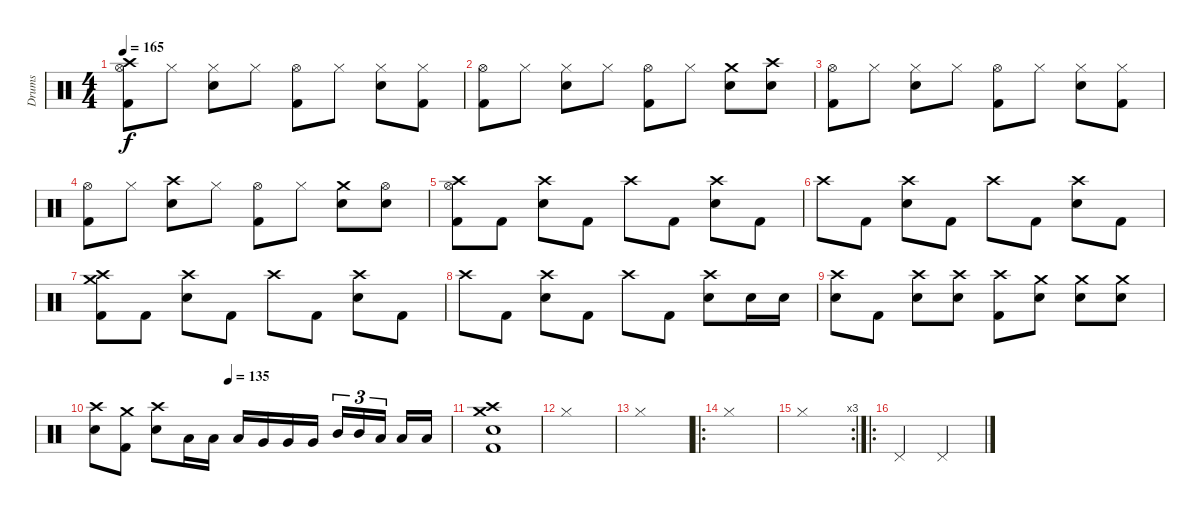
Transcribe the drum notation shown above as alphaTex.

\track ("Drums" "Drums") {instrument percussion}
\staff {score}
\articulation defaults
\ts (4 4)
\tempo 165
\clef neutral
\ks c
("Crash high (hit)" "Hi-Hat (open)" "Kick (hit) 2").8{dy f} "Hi-Hat (closed)".8 ("Hi-Hat (closed)" "Snare (hit) 2").8 "Hi-Hat (closed)".8 ("Hi-Hat (open)" "Kick (hit) 2").8 "Hi-Hat (closed)".8 ("Hi-Hat (closed)" "Snare (hit) 2").8 ("Hi-Hat (closed)" "Kick (hit) 2").8 |
("Hi-Hat (open)" "Kick (hit) 2").8 "Hi-Hat (closed)".8 ("Hi-Hat (closed)" "Snare (hit) 2").8 "Hi-Hat (closed)".8 ("Hi-Hat (open)" "Kick (hit) 2").8 "Hi-Hat (closed)".8 ("Crash medium (hit)" "Snare (hit) 2").8 ("Crash high (hit)" "Snare (hit) 2").8 |
("Hi-Hat (open)" "Kick (hit) 2").8 "Hi-Hat (closed)".8 ("Hi-Hat (closed)" "Snare (hit) 2").8 "Hi-Hat (closed)".8 ("Hi-Hat (open)" "Kick (hit) 2").8 "Hi-Hat (closed)".8 ("Hi-Hat (closed)" "Snare (hit) 2").8 ("Hi-Hat (closed)" "Kick (hit) 2").8 |
("Hi-Hat (open)" "Kick (hit) 2").8 "Hi-Hat (closed)".8 ("Crash high (hit)" "Snare (hit) 2").8 "Hi-Hat (closed)".8 ("Hi-Hat (open)" "Kick (hit) 2").8 "Hi-Hat (closed)".8 ("Crash medium (hit)" "Snare (hit) 2").8 ("Hi-Hat (open)" "Snare (hit) 2").8 |
("Crash high (hit)" "Hi-Hat (open)" "Kick (hit) 2").8 "Kick (hit) 2".8 ("Crash high (hit)" "Snare (hit) 2").8 "Kick (hit) 2".8 "Crash high (hit)".8 "Kick (hit) 2".8 ("Crash high (hit)" "Snare (hit) 2").8 "Kick (hit) 2".8 |
"Crash high (hit)".8 "Kick (hit) 2".8 ("Crash high (hit)" "Snare (hit) 2").8 "Kick (hit) 2".8 "Crash high (hit)".8 "Kick (hit) 2".8 ("Crash high (hit)" "Snare (hit) 2").8 "Kick (hit) 2".8 |
("Crash medium (hit)" "Crash high (hit)" "Kick (hit) 2").8 "Kick (hit) 2".8 ("Crash high (hit)" "Snare (hit) 2").8 "Kick (hit) 2".8 "Crash high (hit)".8 "Kick (hit) 2".8 ("Crash high (hit)" "Snare (hit) 2").8 "Kick (hit) 2".8 |
"Crash high (hit)".8 "Kick (hit) 2".8 ("Crash high (hit)" "Snare (hit) 2").8 "Kick (hit) 2".8 "Crash high (hit)".8 "Kick (hit) 2".8 ("Crash high (hit)" "Snare (hit) 2").8 "Snare (hit) 2".16 "Snare (hit) 2".16 |
("Crash high (hit)" "Snare (hit) 2").8 "Kick (hit) 2".8 ("Crash high (hit)" "Snare (hit) 2").8 ("Crash high (hit)" "Snare (hit) 2").8 ("Crash high (hit)" "Kick (hit) 2").8 ("Crash medium (hit)" "Snare (hit) 2").8 ("Crash medium (hit)" "Snare (hit) 2").8 ("Crash medium (hit)" "Snare (hit) 2").8 |
\tempo (135 0.375)
("Crash high (hit)" "Snare (hit) 2").8 ("Crash medium (hit)" "Kick (hit) 2").8 ("Crash high (hit)" "Snare (hit) 2").8 "Low Tom (hit)".16 "Low Tom (hit)".16 "Low Tom (hit)".16 "Very Low Tom (hit)".16 "Very Low Tom (hit)".16 "Very Low Tom (hit)".16 "Mid Tom (hit)".16{tu (3 2)} "Mid Tom (hit)".16{tu (3 2)} "Low Tom (hit)".16{tu (3 2)} "Low Tom (hit)".16 "Low Tom (hit)".16 |
("Crash medium (hit)" "Crash high (hit)" "Snare (hit) 2" "Kick (hit) 2").1 |
"Hi-Hat (closed)".1 |
"Hi-Hat (closed)".1 |
\ro "Hi-Hat (closed)".1
|
\rc 3 "Hi-Hat (closed)".1
|
\ro "Pedal Hi-Hat (hit)".2 "Pedal Hi-Hat (hit)".2
